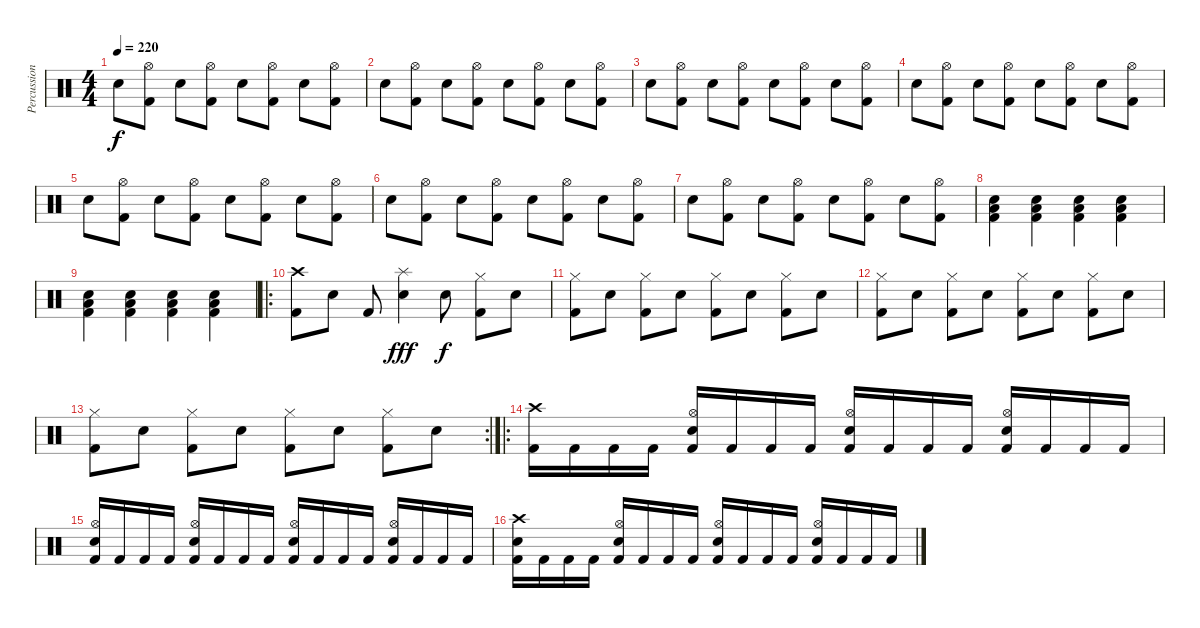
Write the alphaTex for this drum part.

\track ("Percussion" "Percussion") {instrument percussion}
\staff {score}
\articulation defaults
\ts (4 4)
\tempo 220
\clef neutral
\ks c "Electric Snare (hit)".8{dy f}
("Hi-Hat (open)" "Kick (hit) 2").8 "Electric Snare (hit)".8 ("Hi-Hat (open)" "Kick (hit) 2").8 "Electric Snare (hit)".8 ("Hi-Hat (open)" "Kick (hit) 2").8 "Electric Snare (hit)".8 ("Hi-Hat (open)" "Kick (hit) 2").8 |
"Electric Snare (hit)".8 ("Hi-Hat (open)" "Kick (hit) 2").8 "Electric Snare (hit)".8 ("Hi-Hat (open)" "Kick (hit) 2").8 "Electric Snare (hit)".8 ("Hi-Hat (open)" "Kick (hit) 2").8 "Electric Snare (hit)".8 ("Hi-Hat (open)" "Kick (hit) 2").8 |
"Electric Snare (hit)".8 ("Hi-Hat (open)" "Kick (hit) 2").8 "Electric Snare (hit)".8 ("Hi-Hat (open)" "Kick (hit) 2").8 "Electric Snare (hit)".8 ("Hi-Hat (open)" "Kick (hit) 2").8 "Electric Snare (hit)".8 ("Hi-Hat (open)" "Kick (hit) 2").8 |
"Electric Snare (hit)".8 ("Hi-Hat (open)" "Kick (hit) 2").8 "Electric Snare (hit)".8 ("Hi-Hat (open)" "Kick (hit) 2").8 "Electric Snare (hit)".8 ("Hi-Hat (open)" "Kick (hit) 2").8 "Electric Snare (hit)".8 ("Hi-Hat (open)" "Kick (hit) 2").8 |
"Electric Snare (hit)".8 ("Hi-Hat (open)" "Kick (hit) 2").8 "Electric Snare (hit)".8 ("Hi-Hat (open)" "Kick (hit) 2").8 "Electric Snare (hit)".8 ("Hi-Hat (open)" "Kick (hit) 2").8 "Electric Snare (hit)".8 ("Hi-Hat (open)" "Kick (hit) 2").8 |
"Electric Snare (hit)".8 ("Hi-Hat (open)" "Kick (hit) 2").8 "Electric Snare (hit)".8 ("Hi-Hat (open)" "Kick (hit) 2").8 "Electric Snare (hit)".8 ("Hi-Hat (open)" "Kick (hit) 2").8 "Electric Snare (hit)".8 ("Hi-Hat (open)" "Kick (hit) 2").8 |
"Electric Snare (hit)".8 ("Hi-Hat (open)" "Kick (hit) 2").8 "Electric Snare (hit)".8 ("Hi-Hat (open)" "Kick (hit) 2").8 "Electric Snare (hit)".8 ("Hi-Hat (open)" "Kick (hit) 2").8 "Electric Snare (hit)".8 ("Hi-Hat (open)" "Kick (hit) 2").8 |
("Electric Snare (hit)" "Low Tom (hit)" "Kick (hit) 2").4 ("Electric Snare (hit)" "Low Tom (hit)" "Kick (hit) 2").4 ("Electric Snare (hit)" "Low Tom (hit)" "Kick (hit) 2").4 ("Electric Snare (hit)" "Low Tom (hit)" "Kick (hit) 2").4 |
("Electric Snare (hit)" "Low Tom (hit)" "Kick (hit) 2").4 ("Electric Snare (hit)" "Low Tom (hit)" "Kick (hit) 2").4 ("Electric Snare (hit)" "Low Tom (hit)" "Kick (hit) 2").4 ("Electric Snare (hit)" "Low Tom (hit)" "Kick (hit) 2").4 |
\ro
("Crash high (hit)" "Kick (hit) 2").8 "Electric Snare (hit)".8 "Kick (hit) 2".8 ("Splash (hit)" "Electric Snare (hit)").4{dy fff} "Electric Snare (hit)".8{dy f} ("Hi-Hat (closed)" "Kick (hit) 2").8 "Electric Snare (hit)".8 |
("Hi-Hat (closed)" "Kick (hit) 2").8 "Electric Snare (hit)".8 ("Hi-Hat (closed)" "Kick (hit) 2").8 "Electric Snare (hit)".8 ("Hi-Hat (closed)" "Kick (hit) 2").8 "Electric Snare (hit)".8 ("Hi-Hat (closed)" "Kick (hit) 2").8 "Electric Snare (hit)".8 |
("Hi-Hat (closed)" "Kick (hit) 2").8 "Electric Snare (hit)".8 ("Hi-Hat (closed)" "Kick (hit) 2").8 "Electric Snare (hit)".8 ("Hi-Hat (closed)" "Kick (hit) 2").8 "Electric Snare (hit)".8 ("Hi-Hat (closed)" "Kick (hit) 2").8 "Electric Snare (hit)".8 |
\rc 2
("Hi-Hat (closed)" "Kick (hit) 2").8 "Electric Snare (hit)".8 ("Hi-Hat (closed)" "Kick (hit) 2").8 "Electric Snare (hit)".8 ("Hi-Hat (closed)" "Kick (hit) 2").8 "Electric Snare (hit)".8 ("Hi-Hat (closed)" "Kick (hit) 2").8 "Electric Snare (hit)".8 |
\ro
("Crash high (hit)" "Kick (hit) 2").16 "Kick (hit) 2".16 "Kick (hit) 2".16 "Kick (hit) 2".16 ("Hi-Hat (open)" "Electric Snare (hit)" "Kick (hit) 2").16 "Kick (hit) 2".16 "Kick (hit) 2".16 "Kick (hit) 2".16 ("Hi-Hat (open)" "Electric Snare (hit)" "Kick (hit) 2").16 "Kick (hit) 2".16 "Kick (hit) 2".16 "Kick (hit) 2".16 ("Hi-Hat (open)" "Electric Snare (hit)" "Kick (hit) 2").16 "Kick (hit) 2".16 "Kick (hit) 2".16 "Kick (hit) 2".16 |
("Hi-Hat (open)" "Electric Snare (hit)" "Kick (hit) 2").16 "Kick (hit) 2".16 "Kick (hit) 2".16 "Kick (hit) 2".16 ("Hi-Hat (open)" "Electric Snare (hit)" "Kick (hit) 2").16 "Kick (hit) 2".16 "Kick (hit) 2".16 "Kick (hit) 2".16 ("Hi-Hat (open)" "Electric Snare (hit)" "Kick (hit) 2").16 "Kick (hit) 2".16 "Kick (hit) 2".16 "Kick (hit) 2".16 ("Hi-Hat (open)" "Electric Snare (hit)" "Kick (hit) 2").16 "Kick (hit) 2".16 "Kick (hit) 2".16 "Kick (hit) 2".16 |
("Crash high (hit)" "Electric Snare (hit)" "Kick (hit) 2").16 "Kick (hit) 2".16 "Kick (hit) 2".16 "Kick (hit) 2".16 ("Hi-Hat (open)" "Electric Snare (hit)" "Kick (hit) 2").16 "Kick (hit) 2".16 "Kick (hit) 2".16 "Kick (hit) 2".16 ("Hi-Hat (open)" "Electric Snare (hit)" "Kick (hit) 2").16 "Kick (hit) 2".16 "Kick (hit) 2".16 "Kick (hit) 2".16 ("Hi-Hat (open)" "Electric Snare (hit)" "Kick (hit) 2").16 "Kick (hit) 2".16 "Kick (hit) 2".16 "Kick (hit) 2".16
